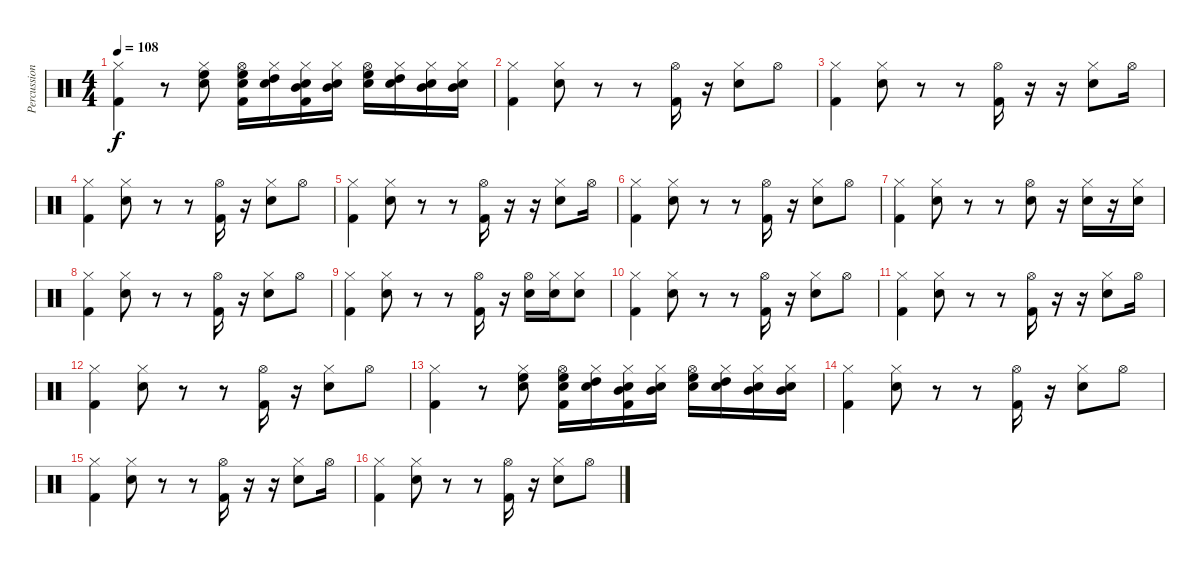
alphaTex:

\track ("Percussions" "Percussion") {instrument percussion}
\staff {score}
\articulation defaults
\ts (4 4)
\tempo 108
\clef neutral
\ks c
("Hi-Hat (closed)" "Kick (hit) 2").4{dy f} r.8 ("Hi-Hat (closed)" "High Floor Tom (hit)" "Snare (hit) 2").8 ("Hi-Hat (open)" "High Floor Tom (hit)" "Snare (hit) 2" "Kick (hit) 2").16 ("Hi-Hat (closed)" "High Tom (hit)" "Snare (hit) 2").16 ("Hi-Hat (closed)" "Mid Tom (hit)" "Snare (hit) 2" "Kick (hit) 2").16 ("Hi-Hat (closed)" "Mid Tom (hit)" "Snare (hit) 2").16 ("Hi-Hat (open)" "High Floor Tom (hit)" "Snare (hit) 2").16 ("Hi-Hat (closed)" "High Tom (hit)" "Snare (hit) 2").16 ("Hi-Hat (closed)" "Mid Tom (hit)" "Snare (hit) 2").16 ("Hi-Hat (closed)" "Mid Tom (hit)" "Snare (hit) 2").16 |
("Hi-Hat (closed)" "Kick (hit) 2").4 ("Hi-Hat (closed)" "Snare (hit) 2").8 r.8 r.8 ("Hi-Hat (open)" "Kick (hit) 2").16 r.16 ("Hi-Hat (closed)" "Snare (hit) 2").8 "Hi-Hat (open)".8 |
("Hi-Hat (closed)" "Kick (hit) 2").4 ("Hi-Hat (closed)" "Snare (hit) 2").8 r.8 r.8 ("Hi-Hat (open)" "Kick (hit) 2").16 r.16 r.16 ("Hi-Hat (closed)" "Snare (hit) 2").8 "Hi-Hat (open)".16 |
("Hi-Hat (closed)" "Kick (hit) 2").4 ("Hi-Hat (closed)" "Snare (hit) 2").8 r.8 r.8 ("Hi-Hat (open)" "Kick (hit) 2").16 r.16 ("Hi-Hat (closed)" "Snare (hit) 2").8 "Hi-Hat (open)".8 |
("Hi-Hat (closed)" "Kick (hit) 2").4 ("Hi-Hat (closed)" "Snare (hit) 2").8 r.8 r.8 ("Hi-Hat (open)" "Kick (hit) 2").16 r.16 r.16 ("Hi-Hat (closed)" "Snare (hit) 2").8 "Hi-Hat (open)".16 |
("Hi-Hat (closed)" "Kick (hit) 2").4 ("Hi-Hat (closed)" "Snare (hit) 2").8 r.8 r.8 ("Hi-Hat (open)" "Kick (hit) 2").16 r.16 ("Hi-Hat (closed)" "Snare (hit) 2").8 "Hi-Hat (open)".8 |
("Hi-Hat (closed)" "Kick (hit) 2").4 ("Hi-Hat (closed)" "Snare (hit) 2").8 r.8 r.8 ("Hi-Hat (open)" "Snare (hit) 2").8 r.16 ("Hi-Hat (closed)" "Snare (hit) 2").16 r.16 ("Hi-Hat (closed)" "Snare (hit) 2").16 |
("Hi-Hat (closed)" "Kick (hit) 2").4 ("Hi-Hat (closed)" "Snare (hit) 2").8 r.8 r.8 ("Hi-Hat (open)" "Kick (hit) 2").16 r.16 ("Hi-Hat (closed)" "Snare (hit) 2").8 "Hi-Hat (open)".8 |
("Hi-Hat (closed)" "Kick (hit) 2").4 ("Hi-Hat (closed)" "Snare (hit) 2").8 r.8 r.8 ("Hi-Hat (open)" "Kick (hit) 2").16 r.16 ("Hi-Hat (open)" "Snare (hit) 2").16 ("Hi-Hat (closed)" "Snare (hit) 2").16 ("Hi-Hat (closed)" "Snare (hit) 2").8 |
("Hi-Hat (closed)" "Kick (hit) 2").4 ("Hi-Hat (closed)" "Snare (hit) 2").8 r.8 r.8 ("Hi-Hat (open)" "Kick (hit) 2").16 r.16 ("Hi-Hat (closed)" "Snare (hit) 2").8 "Hi-Hat (open)".8 |
("Hi-Hat (closed)" "Kick (hit) 2").4 ("Hi-Hat (closed)" "Snare (hit) 2").8 r.8 r.8 ("Hi-Hat (open)" "Kick (hit) 2").16 r.16 r.16 ("Hi-Hat (closed)" "Snare (hit) 2").8 "Hi-Hat (open)".16 |
("Hi-Hat (closed)" "Kick (hit) 2").4 ("Hi-Hat (closed)" "Snare (hit) 2").8 r.8 r.8 ("Hi-Hat (open)" "Kick (hit) 2").16 r.16 ("Hi-Hat (closed)" "Snare (hit) 2").8 "Hi-Hat (open)".8 |
("Hi-Hat (closed)" "Kick (hit) 2").4 r.8 ("Hi-Hat (closed)" "High Floor Tom (hit)" "Snare (hit) 2").8 ("Hi-Hat (open)" "High Floor Tom (hit)" "Snare (hit) 2" "Kick (hit) 2").16 ("Hi-Hat (closed)" "High Tom (hit)" "Snare (hit) 2").16 ("Hi-Hat (closed)" "Mid Tom (hit)" "Snare (hit) 2" "Kick (hit) 2").16 ("Hi-Hat (closed)" "Mid Tom (hit)" "Snare (hit) 2").16 ("Hi-Hat (open)" "High Floor Tom (hit)" "Snare (hit) 2").16 ("Hi-Hat (closed)" "High Tom (hit)" "Snare (hit) 2").16 ("Hi-Hat (closed)" "Mid Tom (hit)" "Snare (hit) 2").16 ("Hi-Hat (closed)" "Mid Tom (hit)" "Snare (hit) 2").16 |
("Hi-Hat (closed)" "Kick (hit) 2").4 ("Hi-Hat (closed)" "Snare (hit) 2").8 r.8 r.8 ("Hi-Hat (open)" "Kick (hit) 2").16 r.16 ("Hi-Hat (closed)" "Snare (hit) 2").8 "Hi-Hat (open)".8 |
("Hi-Hat (closed)" "Kick (hit) 2").4 ("Hi-Hat (closed)" "Snare (hit) 2").8 r.8 r.8 ("Hi-Hat (open)" "Kick (hit) 2").16 r.16 r.16 ("Hi-Hat (closed)" "Snare (hit) 2").8 "Hi-Hat (open)".16 |
("Hi-Hat (closed)" "Kick (hit) 2").4 ("Hi-Hat (closed)" "Snare (hit) 2").8 r.8 r.8 ("Hi-Hat (open)" "Kick (hit) 2").16 r.16 ("Hi-Hat (closed)" "Snare (hit) 2").8 "Hi-Hat (open)".8
